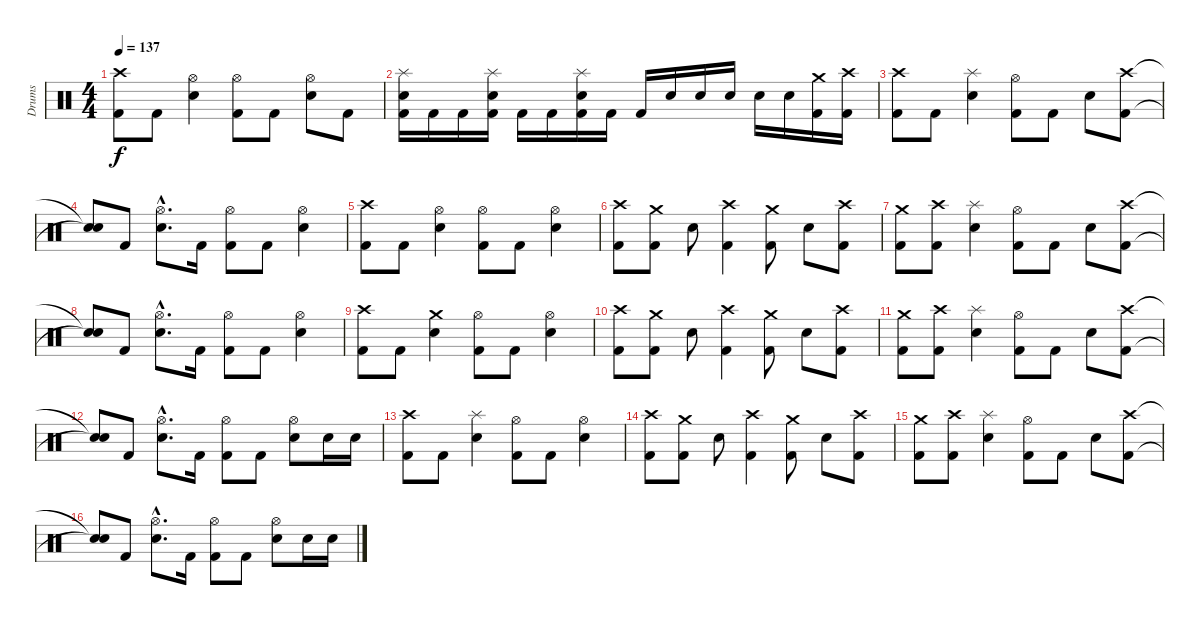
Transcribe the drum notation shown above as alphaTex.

\track ("Drums" "Drums") {instrument percussion}
\staff {score}
\articulation defaults
\ts (4 4)
\tempo 137
\clef neutral
\ks c
("Crash high (hit)" "Kick (hit) 2").8{dy f} "Kick (hit) 2".8 ("Hi-Hat (open)" "Snare (hit) 2").4 ("Hi-Hat (open)" "Kick (hit) 2").8 "Kick (hit) 2".8 ("Hi-Hat (open)" "Snare (hit) 2").8 "Kick (hit) 2".8 |
("Splash (hit)" "Snare (hit) 2" "Kick (hit) 2").16 "Kick (hit) 2".16 "Kick (hit) 2".16 ("Splash (hit)" "Snare (hit) 2" "Kick (hit) 2").16 "Kick (hit) 2".16 "Kick (hit) 2".16 ("Splash (hit)" "Snare (hit) 2" "Kick (hit) 2").16 "Kick (hit) 2".16 "Kick (hit) 2".16 "Snare (hit) 2".16 "Snare (hit) 2".16 "Snare (hit) 2".16 "Snare (hit) 2".16 "Snare (hit) 2".16 ("Crash medium (hit)" "Kick (hit) 2").16 ("Crash high (hit)" "Kick (hit) 2").16 |
("Crash high (hit)" "Kick (hit) 2").8 "Kick (hit) 2".8 ("Splash (hit)" "Snare (hit) 2").4 ("Hi-Hat (open)" "Kick (hit) 2").8 "Kick (hit) 2".8 "Snare (hit) 2".8 ("Crash high (hit)" "Kick (hit) 2").8 |
("Snare (hit)"{t} "Snare (hit)"{t}).8 "Kick (hit) 2".8 ("Hi-Hat (open)"{hac} "Snare (hit) 2"{hac}).8{d} "Kick (hit) 2".16 ("Hi-Hat (open)" "Kick (hit) 2").8 "Kick (hit) 2".8 ("Hi-Hat (open)" "Snare (hit) 2").4 |
("Crash high (hit)" "Kick (hit) 2").8 "Kick (hit) 2".8 ("Hi-Hat (open)" "Snare (hit) 2").4 ("Hi-Hat (open)" "Kick (hit) 2").8 "Kick (hit) 2".8 ("Hi-Hat (open)" "Snare (hit) 2").4 |
("Crash high (hit)" "Kick (hit) 2").8 ("Crash medium (hit)" "Kick (hit) 2").8 "Snare (hit) 2".8 ("Crash high (hit)" "Kick (hit) 2").4 ("Crash medium (hit)" "Kick (hit) 2").8 "Snare (hit) 2".8 ("Crash high (hit)" "Kick (hit) 2").8 |
("Crash medium (hit)" "Kick (hit) 2").8 ("Crash high (hit)" "Kick (hit) 2").8 ("Splash (hit)" "Snare (hit) 2").4 ("Hi-Hat (open)" "Kick (hit) 2").8 "Kick (hit) 2".8 "Snare (hit) 2".8 ("Crash high (hit)" "Kick (hit) 2").8 |
("Snare (hit)"{t} "Snare (hit)"{t}).8 "Kick (hit) 2".8 ("Hi-Hat (open)"{hac} "Snare (hit) 2"{hac}).8{d} "Kick (hit) 2".16 ("Hi-Hat (open)" "Kick (hit) 2").8 "Kick (hit) 2".8 ("Hi-Hat (open)" "Snare (hit) 2").4 |
("Crash high (hit)" "Kick (hit) 2").8 "Kick (hit) 2".8 ("Crash medium (hit)" "Snare (hit) 2").4 ("Hi-Hat (open)" "Kick (hit) 2").8 "Kick (hit) 2".8 ("Hi-Hat (open)" "Snare (hit) 2").4 |
("Crash high (hit)" "Kick (hit) 2").8 ("Crash medium (hit)" "Kick (hit) 2").8 "Snare (hit) 2".8 ("Crash high (hit)" "Kick (hit) 2").4 ("Crash medium (hit)" "Kick (hit) 2").8 "Snare (hit) 2".8 ("Crash high (hit)" "Kick (hit) 2").8 |
("Crash medium (hit)" "Kick (hit) 2").8 ("Crash high (hit)" "Kick (hit) 2").8 ("Splash (hit)" "Snare (hit) 2").4 ("Hi-Hat (open)" "Kick (hit) 2").8 "Kick (hit) 2".8 "Snare (hit) 2".8 ("Crash high (hit)" "Kick (hit) 2").8 |
("Snare (hit)"{t} "Snare (hit)"{t}).8 "Kick (hit) 2".8 ("Hi-Hat (open)"{hac} "Snare (hit) 2"{hac}).8{d} "Kick (hit) 2".16 ("Hi-Hat (open)" "Kick (hit) 2").8 "Kick (hit) 2".8 ("Hi-Hat (open)" "Snare (hit) 2").8 "Snare (hit) 2".16 "Snare (hit) 2".16 |
("Crash high (hit)" "Kick (hit) 2").8 "Kick (hit) 2".8 ("Splash (hit)" "Snare (hit) 2").4 ("Hi-Hat (open)" "Kick (hit) 2").8 "Kick (hit) 2".8 ("Hi-Hat (open)" "Snare (hit) 2").4 |
("Crash high (hit)" "Kick (hit) 2").8 ("Crash medium (hit)" "Kick (hit) 2").8 "Snare (hit) 2".8 ("Crash high (hit)" "Kick (hit) 2").4 ("Crash medium (hit)" "Kick (hit) 2").8 "Snare (hit) 2".8 ("Crash high (hit)" "Kick (hit) 2").8 |
("Crash medium (hit)" "Kick (hit) 2").8 ("Crash high (hit)" "Kick (hit) 2").8 ("Splash (hit)" "Snare (hit) 2").4 ("Hi-Hat (open)" "Kick (hit) 2").8 "Kick (hit) 2".8 "Snare (hit) 2".8 ("Crash high (hit)" "Kick (hit) 2").8 |
("Snare (hit)"{t} "Snare (hit)"{t}).8 "Kick (hit) 2".8 ("Hi-Hat (open)"{hac} "Snare (hit) 2"{hac}).8{d} "Kick (hit) 2".16 ("Hi-Hat (open)" "Kick (hit) 2").8 "Kick (hit) 2".8 ("Hi-Hat (open)" "Snare (hit) 2").8 "Snare (hit) 2".16 "Snare (hit) 2".16
